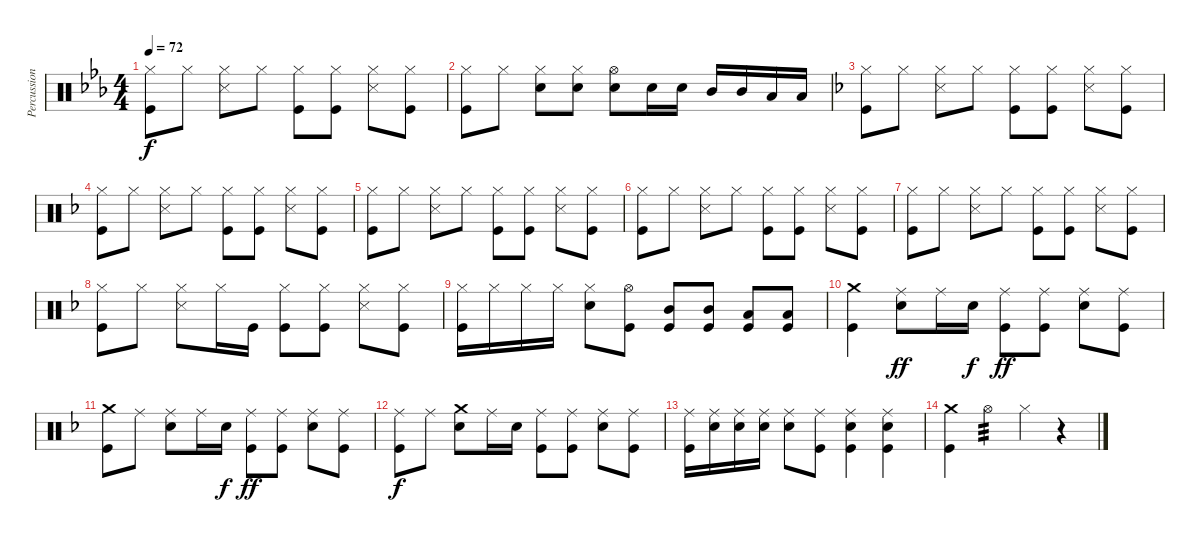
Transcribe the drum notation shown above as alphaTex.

\track ("Percussion" "Percussion") {instrument percussion}
\staff {score}
\articulation defaults
\ts (4 4)
\tempo 72
\clef neutral
\ks eb
("Hi-Hat (closed)" "Kick (hit)").8{dy f} "Hi-Hat (closed)".8 ("Hi-Hat (closed)" "Snare (side stick) 3").8 "Hi-Hat (closed)".8 ("Hi-Hat (closed)" "Kick (hit)").8 ("Hi-Hat (closed)" "Kick (hit)").8 ("Hi-Hat (closed)" "Snare (side stick) 3").8 ("Hi-Hat (closed)" "Kick (hit)").8 |
("Hi-Hat (closed)" "Kick (hit)").8 "Hi-Hat (closed)".8 ("Hi-Hat (closed)" "Snare (hit) 2").8 ("Hi-Hat (closed)" "Snare (hit) 2").8 ("Hi-Hat (open)" "Snare (hit) 2").8 "Snare (hit) 2".16 "Snare (hit) 2".16 "Mid Tom (hit)".16 "Mid Tom (hit)".16 "Low Tom (hit)".16 "Low Tom (hit)".16 |
\ks f
("Hi-Hat (closed)" "Kick (hit)").8 "Hi-Hat (closed)".8 ("Hi-Hat (closed)" "Snare (side stick) 3").8 "Hi-Hat (closed)".8 ("Hi-Hat (closed)" "Kick (hit)").8 ("Hi-Hat (closed)" "Kick (hit)").8 ("Hi-Hat (closed)" "Snare (side stick) 3").8 ("Hi-Hat (closed)" "Kick (hit)").8 |
("Hi-Hat (closed)" "Kick (hit)").8 "Hi-Hat (closed)".8 ("Hi-Hat (closed)" "Snare (side stick) 3").8 "Hi-Hat (closed)".8 ("Hi-Hat (closed)" "Kick (hit)").8 ("Hi-Hat (closed)" "Kick (hit)").8 ("Hi-Hat (closed)" "Snare (side stick) 3").8 ("Hi-Hat (closed)" "Kick (hit)").8 |
("Hi-Hat (closed)" "Kick (hit)").8 "Hi-Hat (closed)".8 ("Hi-Hat (closed)" "Snare (side stick) 3").8 "Hi-Hat (closed)".8 ("Hi-Hat (closed)" "Kick (hit)").8 ("Hi-Hat (closed)" "Kick (hit)").8 ("Hi-Hat (closed)" "Snare (side stick) 3").8 ("Hi-Hat (closed)" "Kick (hit)").8 |
("Hi-Hat (closed)" "Kick (hit)").8 "Hi-Hat (closed)".8 ("Hi-Hat (closed)" "Snare (side stick) 3").8 "Hi-Hat (closed)".8 ("Hi-Hat (closed)" "Kick (hit)").8 ("Hi-Hat (closed)" "Kick (hit)").8 ("Hi-Hat (closed)" "Snare (side stick) 3").8 ("Hi-Hat (closed)" "Kick (hit)").8 |
("Hi-Hat (closed)" "Kick (hit)").8 "Hi-Hat (closed)".8 ("Hi-Hat (closed)" "Snare (side stick) 3").8 "Hi-Hat (closed)".8 ("Hi-Hat (closed)" "Kick (hit)").8 ("Hi-Hat (closed)" "Kick (hit)").8 ("Hi-Hat (closed)" "Snare (side stick) 3").8 ("Hi-Hat (closed)" "Kick (hit)").8 |
("Hi-Hat (closed)" "Kick (hit)").8 "Hi-Hat (closed)".8 ("Hi-Hat (closed)" "Snare (side stick) 3").8 "Hi-Hat (closed)".16 "Kick (hit)".16 ("Hi-Hat (closed)" "Kick (hit)").8 ("Hi-Hat (closed)" "Kick (hit)").8 ("Hi-Hat (closed)" "Snare (side stick) 3").8 ("Hi-Hat (closed)" "Kick (hit)").8 |
("Hi-Hat (closed)" "Kick (hit)").16 "Hi-Hat (closed)".16 "Hi-Hat (closed)".16 "Hi-Hat (closed)".16 ("Hi-Hat (closed)" "Snare (hit) 2").8 ("Hi-Hat (open)" "Kick (hit)").8 ("Mid Tom (hit)" "Kick (hit)").8 ("Mid Tom (hit)" "Kick (hit)").8 ("Low Tom (hit)" "Kick (hit)").8 ("Low Tom (hit)" "Kick (hit)").8 |
("Crash medium (hit)" "Kick (hit)").4 ("Ride (middle)" "Snare (hit) 2").8{dy ff} "Ride (middle)".16 "Snare (hit) 2".16{dy f} ("Ride (middle)" "Kick (hit)").8{dy ff} ("Ride (middle)" "Kick (hit)").8 ("Ride (middle)" "Snare (hit) 2").8 ("Ride (middle)" "Kick (hit)").8 |
("Crash medium (hit)" "Kick (hit)").8 "Ride (middle)".8 ("Ride (middle)" "Snare (hit) 2").8 "Ride (middle)".16 "Snare (hit) 2".16{dy f} ("Ride (middle)" "Kick (hit)").8{dy ff} ("Ride (middle)" "Kick (hit)").8 ("Ride (middle)" "Snare (hit) 2").8 ("Ride (middle)" "Kick (hit)").8 |
("Ride (middle)" "Kick (hit)").8{dy f} "Ride (middle)".8 ("Crash medium (hit)" "Snare (hit) 2").8 "Ride (middle)".16 "Snare (hit) 2".16 ("Ride (middle)" "Kick (hit)").8 ("Ride (middle)" "Kick (hit)").8 ("Ride (middle)" "Snare (hit) 2").8 ("Ride (middle)" "Kick (hit)").8 |
("Ride (middle)" "Kick (hit)").16 ("Ride (middle)" "Snare (hit) 2").16 ("Ride (middle)" "Snare (hit) 2").16 ("Ride (middle)" "Snare (hit) 2").16 ("Ride (middle)" "Snare (hit) 2").8 ("Ride (middle)" "Kick (hit)").8 ("Ride (middle)" "Snare (hit) 2" "Kick (hit)").4 ("Ride (middle)" "Snare (hit) 2" "Kick (hit)").4 |
("Crash medium (hit)" "Kick (hit)").4 "Hi-Hat (open)".4{tp 3} "Hi-Hat (closed)".4 r.4
